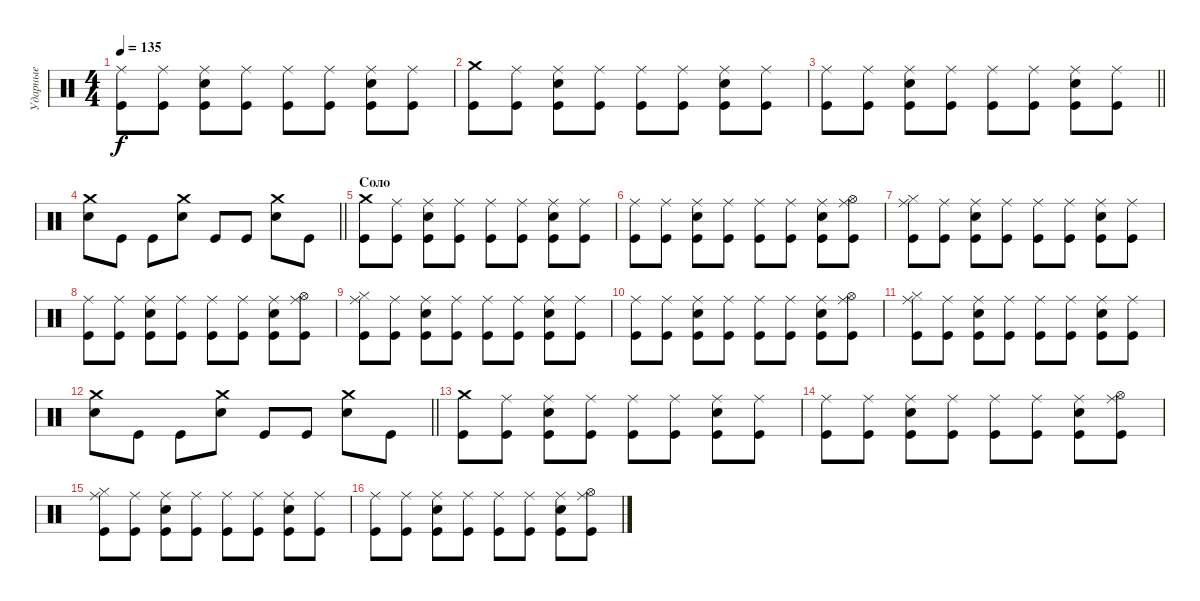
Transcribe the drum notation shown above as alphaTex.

\track ("Ударные" "Ударные") {instrument percussion}
\staff {score}
\articulation defaults
\ts (4 4)
\tempo 135
\clef neutral
\ks c
("Ride (middle)" "Kick (hit)").8{dy f} ("Ride (middle)" "Kick (hit)").8 ("Ride (middle)" "Electric Snare (hit)" "Kick (hit)").8 ("Ride (middle)" "Kick (hit)").8 ("Ride (middle)" "Kick (hit)").8 ("Ride (middle)" "Kick (hit)").8 ("Ride (middle)" "Electric Snare (hit)" "Kick (hit)").8 ("Ride (middle)" "Kick (hit)").8 |
("Crash medium (hit)" "Kick (hit)").8 ("Ride (middle)" "Kick (hit)").8 ("Ride (middle)" "Electric Snare (hit)" "Kick (hit)").8 ("Ride (middle)" "Kick (hit)").8 ("Ride (middle)" "Kick (hit)").8 ("Ride (middle)" "Kick (hit)").8 ("Ride (middle)" "Electric Snare (hit)" "Kick (hit)").8 ("Ride (middle)" "Kick (hit)").8 |
\barLineRight lightlight
("Ride (middle)" "Kick (hit)").8 ("Ride (middle)" "Kick (hit)").8 ("Ride (middle)" "Electric Snare (hit)" "Kick (hit)").8 ("Ride (middle)" "Kick (hit)").8 ("Ride (middle)" "Kick (hit)").8 ("Ride (middle)" "Kick (hit)").8 ("Ride (middle)" "Electric Snare (hit)" "Kick (hit)").8 ("Ride (middle)" "Kick (hit)").8 |
\barLineRight lightlight
("Crash medium (hit)" "Electric Snare (hit)").8 "Kick (hit)".8 "Kick (hit)".8 ("Crash medium (hit)" "Electric Snare (hit)").8 "Kick (hit)".8 "Kick (hit)".8 ("Crash medium (hit)" "Electric Snare (hit)").8 "Kick (hit)".8 |
\section ("" "Соло")
("Kick (hit)" "Crash medium (hit)").8 ("Ride (middle)" "Kick (hit)").8 ("Ride (middle)" "Electric Snare (hit)" "Kick (hit)").8 ("Ride (middle)" "Kick (hit)").8 ("Ride (middle)" "Kick (hit)").8 ("Ride (middle)" "Kick (hit)").8 ("Ride (middle)" "Electric Snare (hit)" "Kick (hit)").8 ("Ride (middle)" "Kick (hit)").8 |
("Ride (middle)" "Kick (hit)").8 ("Ride (middle)" "Kick (hit)").8 ("Ride (middle)" "Electric Snare (hit)" "Kick (hit)").8 ("Ride (middle)" "Kick (hit)").8 ("Ride (middle)" "Kick (hit)").8 ("Ride (middle)" "Kick (hit)").8 ("Ride (middle)" "Electric Snare (hit)" "Kick (hit)").8 ("Ride (middle)" "Hi-Hat (open)" "Kick (hit)").8 |
("Ride (middle)" "Hi-Hat (closed)" "Kick (hit)").8 ("Ride (middle)" "Kick (hit)").8 ("Ride (middle)" "Electric Snare (hit)" "Kick (hit)").8 ("Ride (middle)" "Kick (hit)").8 ("Ride (middle)" "Kick (hit)").8 ("Ride (middle)" "Kick (hit)").8 ("Ride (middle)" "Electric Snare (hit)" "Kick (hit)").8 ("Ride (middle)" "Kick (hit)").8 |
("Ride (middle)" "Kick (hit)").8 ("Ride (middle)" "Kick (hit)").8 ("Ride (middle)" "Electric Snare (hit)" "Kick (hit)").8 ("Ride (middle)" "Kick (hit)").8 ("Ride (middle)" "Kick (hit)").8 ("Ride (middle)" "Kick (hit)").8 ("Ride (middle)" "Electric Snare (hit)" "Kick (hit)").8 ("Ride (middle)" "Hi-Hat (open)" "Kick (hit)").8 |
("Ride (middle)" "Hi-Hat (closed)" "Kick (hit)").8 ("Ride (middle)" "Kick (hit)").8 ("Ride (middle)" "Electric Snare (hit)" "Kick (hit)").8 ("Ride (middle)" "Kick (hit)").8 ("Ride (middle)" "Kick (hit)").8 ("Ride (middle)" "Kick (hit)").8 ("Ride (middle)" "Electric Snare (hit)" "Kick (hit)").8 ("Ride (middle)" "Kick (hit)").8 |
("Ride (middle)" "Kick (hit)").8 ("Ride (middle)" "Kick (hit)").8 ("Ride (middle)" "Electric Snare (hit)" "Kick (hit)").8 ("Ride (middle)" "Kick (hit)").8 ("Ride (middle)" "Kick (hit)").8 ("Ride (middle)" "Kick (hit)").8 ("Ride (middle)" "Electric Snare (hit)" "Kick (hit)").8 ("Ride (middle)" "Hi-Hat (open)" "Kick (hit)").8 |
("Ride (middle)" "Hi-Hat (closed)" "Kick (hit)").8 ("Ride (middle)" "Kick (hit)").8 ("Ride (middle)" "Electric Snare (hit)" "Kick (hit)").8 ("Ride (middle)" "Kick (hit)").8 ("Ride (middle)" "Kick (hit)").8 ("Ride (middle)" "Kick (hit)").8 ("Ride (middle)" "Electric Snare (hit)" "Kick (hit)").8 ("Ride (middle)" "Kick (hit)").8 |
\barLineRight lightlight
("Crash medium (hit)" "Electric Snare (hit)").8 "Kick (hit)".8 "Kick (hit)".8 ("Crash medium (hit)" "Electric Snare (hit)").8 "Kick (hit)".8 "Kick (hit)".8 ("Crash medium (hit)" "Electric Snare (hit)").8 "Kick (hit)".8 |
\section ("" " ")
("Kick (hit)" "Crash medium (hit)").8 ("Ride (middle)" "Kick (hit)").8 ("Ride (middle)" "Electric Snare (hit)" "Kick (hit)").8 ("Ride (middle)" "Kick (hit)").8 ("Ride (middle)" "Kick (hit)").8 ("Ride (middle)" "Kick (hit)").8 ("Ride (middle)" "Electric Snare (hit)" "Kick (hit)").8 ("Ride (middle)" "Kick (hit)").8 |
("Ride (middle)" "Kick (hit)").8 ("Ride (middle)" "Kick (hit)").8 ("Ride (middle)" "Electric Snare (hit)" "Kick (hit)").8 ("Ride (middle)" "Kick (hit)").8 ("Ride (middle)" "Kick (hit)").8 ("Ride (middle)" "Kick (hit)").8 ("Ride (middle)" "Electric Snare (hit)" "Kick (hit)").8 ("Ride (middle)" "Hi-Hat (open)" "Kick (hit)").8 |
("Ride (middle)" "Hi-Hat (closed)" "Kick (hit)").8 ("Ride (middle)" "Kick (hit)").8 ("Ride (middle)" "Electric Snare (hit)" "Kick (hit)").8 ("Ride (middle)" "Kick (hit)").8 ("Ride (middle)" "Kick (hit)").8 ("Ride (middle)" "Kick (hit)").8 ("Ride (middle)" "Electric Snare (hit)" "Kick (hit)").8 ("Ride (middle)" "Kick (hit)").8 |
("Ride (middle)" "Kick (hit)").8 ("Ride (middle)" "Kick (hit)").8 ("Ride (middle)" "Electric Snare (hit)" "Kick (hit)").8 ("Ride (middle)" "Kick (hit)").8 ("Ride (middle)" "Kick (hit)").8 ("Ride (middle)" "Kick (hit)").8 ("Ride (middle)" "Electric Snare (hit)" "Kick (hit)").8 ("Ride (middle)" "Hi-Hat (open)" "Kick (hit)").8
